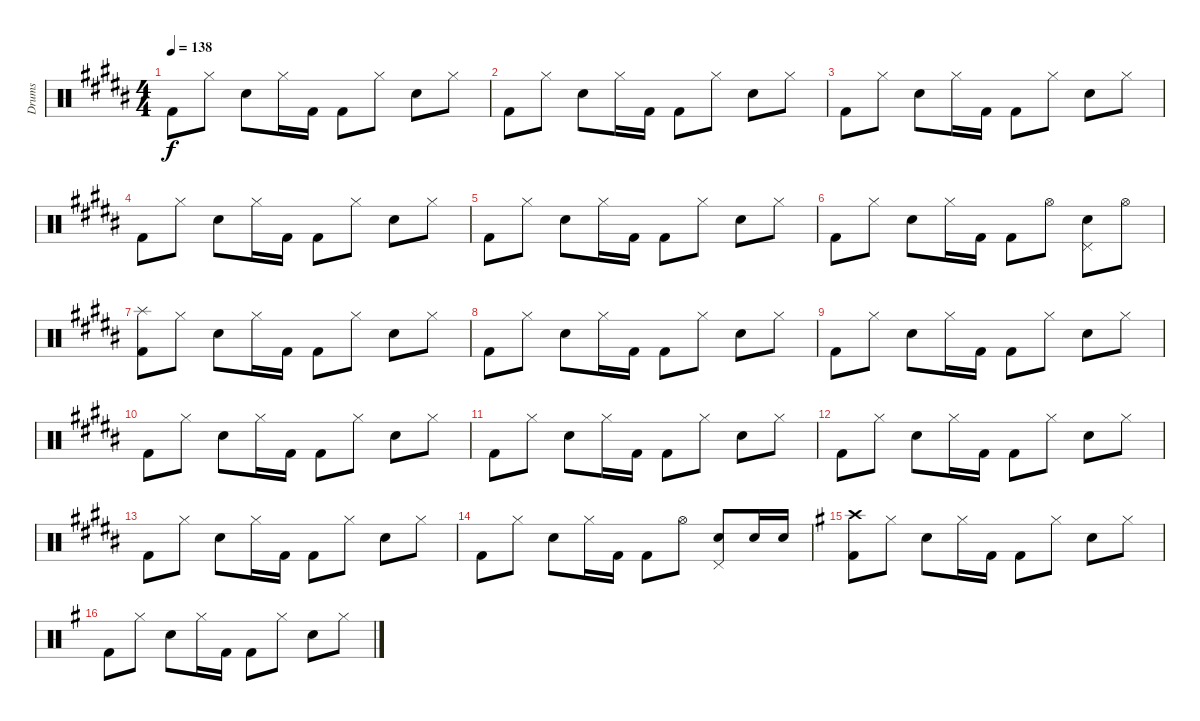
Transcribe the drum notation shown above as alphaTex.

\track ("Drums" "Drums") {instrument percussion}
\staff {score}
\articulation defaults
\ts (4 4)
\tempo 138
\clef neutral
\ks g#minor "Kick (hit) 2".8{dy f} "Hi-Hat (closed)".8 "Electric Snare (hit)".8 "Hi-Hat (closed)".16 "Kick (hit) 2".16 "Kick (hit) 2".8 "Hi-Hat (closed)".8 "Electric Snare (hit)".8 "Hi-Hat (closed)".8
|
"Kick (hit) 2".8 "Hi-Hat (closed)".8 "Electric Snare (hit)".8 "Hi-Hat (closed)".16 "Kick (hit) 2".16 "Kick (hit) 2".8 "Hi-Hat (closed)".8 "Electric Snare (hit)".8 "Hi-Hat (closed)".8 |
"Kick (hit) 2".8 "Hi-Hat (closed)".8 "Electric Snare (hit)".8 "Hi-Hat (closed)".16 "Kick (hit) 2".16 "Kick (hit) 2".8 "Hi-Hat (closed)".8 "Electric Snare (hit)".8 "Hi-Hat (closed)".8 |
"Kick (hit) 2".8 "Hi-Hat (closed)".8 "Electric Snare (hit)".8 "Hi-Hat (closed)".16 "Kick (hit) 2".16 "Kick (hit) 2".8 "Hi-Hat (closed)".8 "Electric Snare (hit)".8 "Hi-Hat (closed)".8 |
"Kick (hit) 2".8 "Hi-Hat (closed)".8 "Electric Snare (hit)".8 "Hi-Hat (closed)".16 "Kick (hit) 2".16 "Kick (hit) 2".8 "Hi-Hat (closed)".8 "Electric Snare (hit)".8 "Hi-Hat (closed)".8 |
"Kick (hit) 2".8 "Hi-Hat (closed)".8 "Electric Snare (hit)".8 "Hi-Hat (closed)".16 "Kick (hit) 2".16 "Kick (hit) 2".8 "Hi-Hat (open)".8 ("Electric Snare (hit)" "Pedal Hi-Hat (hit)").8 "Hi-Hat (open)".8 |
("Splash (hit)" "Kick (hit) 2").8 "Hi-Hat (closed)".8 "Electric Snare (hit)".8 "Hi-Hat (closed)".16 "Kick (hit) 2".16 "Kick (hit) 2".8 "Hi-Hat (closed)".8 "Electric Snare (hit)".8 "Hi-Hat (closed)".8 |
"Kick (hit) 2".8 "Hi-Hat (closed)".8 "Electric Snare (hit)".8 "Hi-Hat (closed)".16 "Kick (hit) 2".16 "Kick (hit) 2".8 "Hi-Hat (closed)".8 "Electric Snare (hit)".8 "Hi-Hat (closed)".8 |
"Kick (hit) 2".8 "Hi-Hat (closed)".8 "Electric Snare (hit)".8 "Hi-Hat (closed)".16 "Kick (hit) 2".16 "Kick (hit) 2".8 "Hi-Hat (closed)".8 "Electric Snare (hit)".8 "Hi-Hat (closed)".8 |
"Kick (hit) 2".8 "Hi-Hat (closed)".8 "Electric Snare (hit)".8 "Hi-Hat (closed)".16 "Kick (hit) 2".16 "Kick (hit) 2".8 "Hi-Hat (closed)".8 "Electric Snare (hit)".8 "Hi-Hat (closed)".8 |
"Kick (hit) 2".8 "Hi-Hat (closed)".8 "Electric Snare (hit)".8 "Hi-Hat (closed)".16 "Kick (hit) 2".16 "Kick (hit) 2".8 "Hi-Hat (closed)".8 "Electric Snare (hit)".8 "Hi-Hat (closed)".8 |
"Kick (hit) 2".8 "Hi-Hat (closed)".8 "Electric Snare (hit)".8 "Hi-Hat (closed)".16 "Kick (hit) 2".16 "Kick (hit) 2".8 "Hi-Hat (closed)".8 "Electric Snare (hit)".8 "Hi-Hat (closed)".8 |
"Kick (hit) 2".8 "Hi-Hat (closed)".8 "Electric Snare (hit)".8 "Hi-Hat (closed)".16 "Kick (hit) 2".16 "Kick (hit) 2".8 "Hi-Hat (closed)".8 "Electric Snare (hit)".8 "Hi-Hat (closed)".8 |
"Kick (hit) 2".8 "Hi-Hat (closed)".8 "Electric Snare (hit)".8 "Hi-Hat (closed)".16 "Kick (hit) 2".16 "Kick (hit) 2".8 "Hi-Hat (open)".8 ("Electric Snare (hit)" "Pedal Hi-Hat (hit)").8 "Electric Snare (hit)".16 "Electric Snare (hit)".16 |
\ks eminor
("Crash high (hit)" "Kick (hit) 2").8 "Hi-Hat (closed)".8 "Electric Snare (hit)".8 "Hi-Hat (closed)".16 "Kick (hit) 2".16 "Kick (hit) 2".8 "Hi-Hat (closed)".8 "Electric Snare (hit)".8 "Hi-Hat (closed)".8 |
"Kick (hit) 2".8 "Hi-Hat (closed)".8 "Electric Snare (hit)".8 "Hi-Hat (closed)".16 "Kick (hit) 2".16 "Kick (hit) 2".8 "Hi-Hat (closed)".8 "Electric Snare (hit)".8 "Hi-Hat (closed)".8
